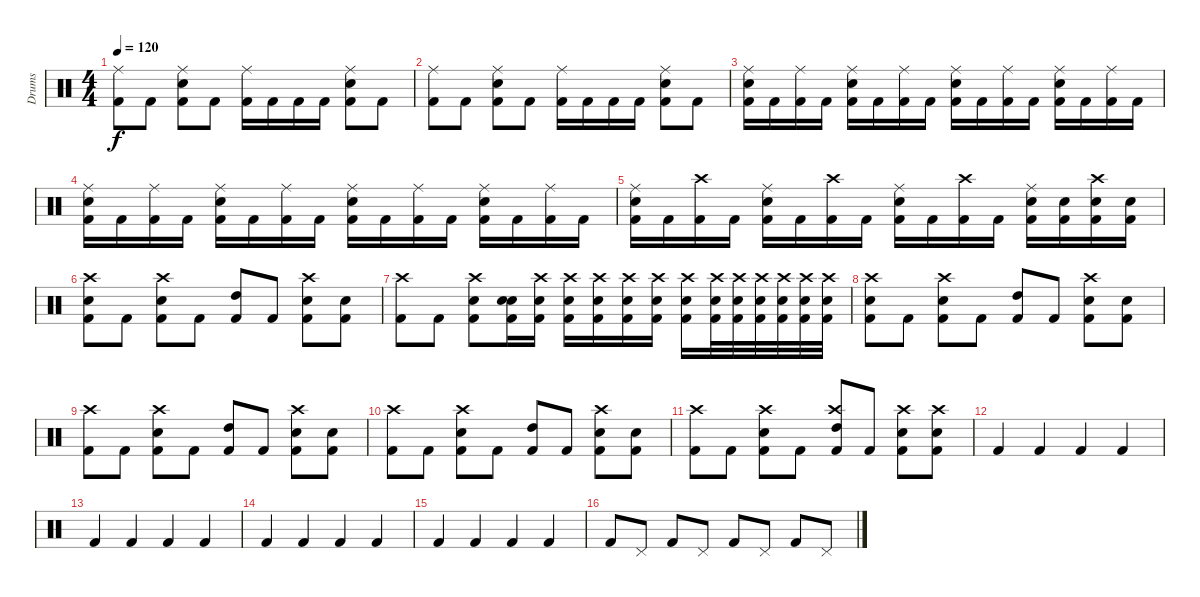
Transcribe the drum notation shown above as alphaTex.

\track ("Drums" "Drums") {instrument percussion}
\staff {score}
\articulation defaults
\ts (4 4)
\tempo 120
\clef neutral
\ks c
("Ride (middle)" "Kick (hit) 2").8{dy f} "Kick (hit) 2".8 ("Ride (middle)" "Snare (hit) 2" "Kick (hit) 2").8 "Kick (hit) 2".8 ("Ride (middle)" "Kick (hit) 2").16 "Kick (hit) 2".16 "Kick (hit) 2".16 "Kick (hit) 2".16 ("Ride (middle)" "Snare (hit) 2" "Kick (hit) 2").8 "Kick (hit) 2".8 |
("Ride (middle)" "Kick (hit) 2").8 "Kick (hit) 2".8 ("Ride (middle)" "Snare (hit) 2" "Kick (hit) 2").8 "Kick (hit) 2".8 ("Ride (middle)" "Kick (hit) 2").16 "Kick (hit) 2".16 "Kick (hit) 2".16 "Kick (hit) 2".16 ("Ride (middle)" "Snare (hit) 2" "Kick (hit) 2").8 "Kick (hit) 2".8 |
("Ride (middle)" "Snare (hit) 2" "Kick (hit) 2").16 "Kick (hit) 2".16 ("Ride (middle)" "Kick (hit) 2").16 "Kick (hit) 2".16 ("Ride (middle)" "Snare (hit) 2" "Kick (hit) 2").16 "Kick (hit) 2".16 ("Ride (middle)" "Kick (hit) 2").16 "Kick (hit) 2".16 ("Ride (middle)" "Snare (hit) 2" "Kick (hit) 2").16 "Kick (hit) 2".16 ("Ride (middle)" "Kick (hit) 2").16 "Kick (hit) 2".16 ("Ride (middle)" "Snare (hit) 2" "Kick (hit) 2").16 "Kick (hit) 2".16 ("Ride (middle)" "Kick (hit) 2").16 "Kick (hit) 2".16 |
("Ride (middle)" "Snare (hit) 2" "Kick (hit) 2").16 "Kick (hit) 2".16 ("Ride (middle)" "Kick (hit) 2").16 "Kick (hit) 2".16 ("Ride (middle)" "Snare (hit) 2" "Kick (hit) 2").16 "Kick (hit) 2".16 ("Ride (middle)" "Kick (hit) 2").16 "Kick (hit) 2".16 ("Ride (middle)" "Snare (hit) 2" "Kick (hit) 2").16 "Kick (hit) 2".16 ("Ride (middle)" "Kick (hit) 2").16 "Kick (hit) 2".16 ("Ride (middle)" "Snare (hit) 2" "Kick (hit) 2").16 "Kick (hit) 2".16 ("Ride (middle)" "Kick (hit) 2").16 "Kick (hit) 2".16 |
("Ride (middle)" "Snare (hit) 2" "Kick (hit) 2").16 "Kick (hit) 2".16 ("Crash high (hit)" "Kick (hit) 2").16 "Kick (hit) 2".16 ("Ride (middle)" "Snare (hit) 2" "Kick (hit) 2").16 "Kick (hit) 2".16 ("Crash high (hit)" "Kick (hit) 2").16 "Kick (hit) 2".16 ("Ride (middle)" "Snare (hit) 2" "Kick (hit) 2").16 "Kick (hit) 2".16 ("Crash high (hit)" "Kick (hit) 2").16 "Kick (hit) 2".16 ("Ride (middle)" "Snare (hit) 2" "Kick (hit) 2").16 ("Snare (hit) 2" "Kick (hit) 2").16 ("Crash high (hit)" "Snare (hit) 2" "Kick (hit) 2").16 ("Snare (hit) 2" "Kick (hit) 2").16 |
("Crash high (hit)" "Snare (hit) 2" "Kick (hit) 2").8 "Kick (hit) 2".8 ("Crash high (hit)" "Snare (hit) 2" "Kick (hit) 2").8 "Kick (hit) 2".8 ("High Tom (hit)" "Kick (hit) 2").8 "Kick (hit) 2".8 ("Crash high (hit)" "Snare (hit) 2" "Kick (hit) 2").8 ("Snare (hit) 2" "Kick (hit) 2").8 |
("Crash high (hit)" "Kick (hit) 2").8 "Kick (hit) 2".8 ("Crash high (hit)" "Snare (hit) 2" "Kick (hit) 2").8 ("Snare (hit) 2" "Snare (hit) 2" "Kick (hit) 2").16 ("Crash high (hit)" "Snare (hit) 2" "Kick (hit) 2").16 ("Crash high (hit)" "Snare (hit) 2" "Kick (hit) 2").16 ("Crash high (hit)" "Snare (hit) 2" "Kick (hit) 2").16 ("Crash high (hit)" "Snare (hit) 2" "Kick (hit) 2").16 ("Crash high (hit)" "Snare (hit) 2" "Kick (hit) 2").16 ("Crash high (hit)" "Snare (hit) 2" "Kick (hit) 2").16 ("Crash high (hit)" "Snare (hit) 2" "Kick (hit) 2").32 ("Crash high (hit)" "Snare (hit) 2" "Kick (hit) 2").32 ("Crash high (hit)" "Snare (hit) 2" "Kick (hit) 2").32 ("Crash high (hit)" "Snare (hit) 2" "Kick (hit) 2").32 ("Crash high (hit)" "Snare (hit) 2" "Kick (hit) 2").32 ("Crash high (hit)" "Snare (hit) 2" "Kick (hit) 2").32 |
("Crash high (hit)" "Snare (hit) 2" "Kick (hit) 2").8 "Kick (hit) 2".8 ("Crash high (hit)" "Snare (hit) 2" "Kick (hit) 2").8 "Kick (hit) 2".8 ("High Tom (hit)" "Kick (hit) 2").8 "Kick (hit) 2".8 ("Crash high (hit)" "Snare (hit) 2" "Kick (hit) 2").8 ("Snare (hit) 2" "Kick (hit) 2").8 |
("Crash high (hit)" "Kick (hit) 2").8 "Kick (hit) 2".8 ("Crash high (hit)" "Snare (hit) 2" "Kick (hit) 2").8 "Kick (hit) 2".8 ("High Tom (hit)" "Kick (hit) 2").8 "Kick (hit) 2".8 ("Crash high (hit)" "Snare (hit) 2" "Kick (hit) 2").8 ("Snare (hit) 2" "Kick (hit) 2").8 |
("Crash high (hit)" "Kick (hit) 2").8 "Kick (hit) 2".8 ("Crash high (hit)" "Snare (hit) 2" "Kick (hit) 2").8 "Kick (hit) 2".8 ("High Tom (hit)" "Kick (hit) 2").8 "Kick (hit) 2".8 ("Crash high (hit)" "Snare (hit) 2" "Kick (hit) 2").8 ("Snare (hit) 2" "Kick (hit) 2").8 |
("Crash high (hit)" "Kick (hit) 2").8 "Kick (hit) 2".8 ("Crash high (hit)" "Snare (hit) 2" "Kick (hit) 2").8 "Kick (hit) 2".8 ("Crash high (hit)" "High Tom (hit)" "Kick (hit) 2").8 "Kick (hit) 2".8 ("Crash high (hit)" "Snare (hit) 2" "Kick (hit) 2").8 ("Crash high (hit)" "Snare (hit) 2" "Kick (hit) 2").8 |
"Kick (hit) 2".4 "Kick (hit) 2".4 "Kick (hit) 2".4 "Kick (hit) 2".4 |
"Kick (hit) 2".4 "Kick (hit) 2".4 "Kick (hit) 2".4 "Kick (hit) 2".4 |
"Kick (hit) 2".4 "Kick (hit) 2".4 "Kick (hit) 2".4 "Kick (hit) 2".4 |
"Kick (hit) 2".4 "Kick (hit) 2".4 "Kick (hit) 2".4 "Kick (hit) 2".4 |
"Kick (hit) 2".8 "Pedal Hi-Hat (hit)".8 "Kick (hit) 2".8 "Pedal Hi-Hat (hit)".8 "Kick (hit) 2".8 "Pedal Hi-Hat (hit)".8 "Kick (hit) 2".8 "Pedal Hi-Hat (hit)".8
